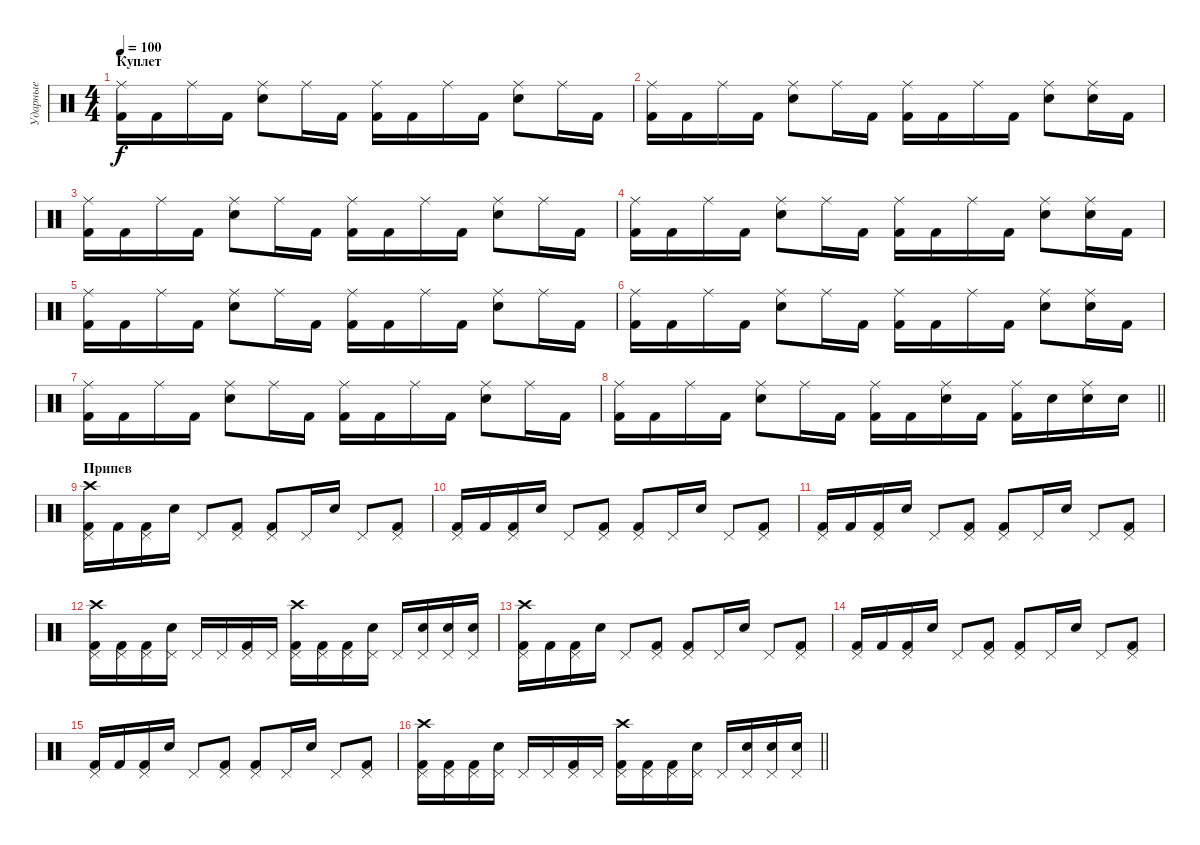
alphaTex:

\track ("Ударные" "Ударные") {instrument percussion}
\staff {score}
\articulation defaults
\ts (4 4)
\section ("" "Куплет")
\tempo 100
\clef neutral
\ks c
("Ride (middle)" "Kick (hit) 2").16{dy f} "Kick (hit) 2".16 "Ride (middle)".16 "Kick (hit) 2".16 ("Ride (middle)" "Snare (hit) 2").8 "Ride (middle)".16 "Kick (hit) 2".16 ("Ride (middle)" "Kick (hit) 2").16 "Kick (hit) 2".16 "Ride (middle)".16 "Kick (hit) 2".16 ("Ride (middle)" "Snare (hit) 2").8 "Ride (middle)".16 "Kick (hit) 2".16 |
("Ride (middle)" "Kick (hit) 2").16 "Kick (hit) 2".16 "Ride (middle)".16 "Kick (hit) 2".16 ("Ride (middle)" "Snare (hit) 2").8 "Ride (middle)".16 "Kick (hit) 2".16 ("Ride (middle)" "Kick (hit) 2").16 "Kick (hit) 2".16 "Ride (middle)".16 "Kick (hit) 2".16 ("Ride (middle)" "Snare (hit) 2").8 ("Ride (middle)" "Snare (hit) 2").16 "Kick (hit) 2".16 |
("Ride (middle)" "Kick (hit) 2").16 "Kick (hit) 2".16 "Ride (middle)".16 "Kick (hit) 2".16 ("Ride (middle)" "Snare (hit) 2").8 "Ride (middle)".16 "Kick (hit) 2".16 ("Ride (middle)" "Kick (hit) 2").16 "Kick (hit) 2".16 "Ride (middle)".16 "Kick (hit) 2".16 ("Ride (middle)" "Snare (hit) 2").8 "Ride (middle)".16 "Kick (hit) 2".16 |
("Ride (middle)" "Kick (hit) 2").16 "Kick (hit) 2".16 "Ride (middle)".16 "Kick (hit) 2".16 ("Ride (middle)" "Snare (hit) 2").8 "Ride (middle)".16 "Kick (hit) 2".16 ("Ride (middle)" "Kick (hit) 2").16 "Kick (hit) 2".16 "Ride (middle)".16 "Kick (hit) 2".16 ("Ride (middle)" "Snare (hit) 2").8 ("Ride (middle)" "Snare (hit) 2").16 "Kick (hit) 2".16 |
("Ride (middle)" "Kick (hit) 2").16 "Kick (hit) 2".16 "Ride (middle)".16 "Kick (hit) 2".16 ("Ride (middle)" "Snare (hit) 2").8 "Ride (middle)".16 "Kick (hit) 2".16 ("Ride (middle)" "Kick (hit) 2").16 "Kick (hit) 2".16 "Ride (middle)".16 "Kick (hit) 2".16 ("Ride (middle)" "Snare (hit) 2").8 "Ride (middle)".16 "Kick (hit) 2".16 |
("Ride (middle)" "Kick (hit) 2").16 "Kick (hit) 2".16 "Ride (middle)".16 "Kick (hit) 2".16 ("Ride (middle)" "Snare (hit) 2").8 "Ride (middle)".16 "Kick (hit) 2".16 ("Ride (middle)" "Kick (hit) 2").16 "Kick (hit) 2".16 "Ride (middle)".16 "Kick (hit) 2".16 ("Ride (middle)" "Snare (hit) 2").8 ("Ride (middle)" "Snare (hit) 2").16 "Kick (hit) 2".16 |
("Ride (middle)" "Kick (hit) 2").16 "Kick (hit) 2".16 "Ride (middle)".16 "Kick (hit) 2".16 ("Ride (middle)" "Snare (hit) 2").8 "Ride (middle)".16 "Kick (hit) 2".16 ("Ride (middle)" "Kick (hit) 2").16 "Kick (hit) 2".16 "Ride (middle)".16 "Kick (hit) 2".16 ("Ride (middle)" "Snare (hit) 2").8 "Ride (middle)".16 "Kick (hit) 2".16 |
\barLineRight lightlight
("Ride (middle)" "Kick (hit) 2").16 "Kick (hit) 2".16 "Ride (middle)".16 "Kick (hit) 2".16 ("Ride (middle)" "Snare (hit) 2").8 "Ride (middle)".16 "Kick (hit) 2".16 ("Ride (middle)" "Kick (hit) 2").16 "Kick (hit) 2".16 ("Ride (middle)" "Snare (hit) 2").16 "Kick (hit) 2".16 ("Ride (middle)" "Kick (hit) 2").16 "Snare (hit) 2".16 ("Ride (middle)" "Snare (hit) 2").16 "Snare (hit) 2".16 |
\section ("" "Припев")
("Pedal Hi-Hat (hit)" "Kick (hit) 2" "Crash high (hit)").16 "Kick (hit) 2".16 ("Pedal Hi-Hat (hit)" "Kick (hit) 2").16 "Snare (hit) 2".16 "Pedal Hi-Hat (hit)".8 ("Pedal Hi-Hat (hit)" "Kick (hit) 2").8 ("Pedal Hi-Hat (hit)" "Kick (hit) 2").8 "Pedal Hi-Hat (hit)".16 "Snare (hit) 2".16 "Pedal Hi-Hat (hit)".8 ("Pedal Hi-Hat (hit)" "Kick (hit) 2").8 |
("Pedal Hi-Hat (hit)" "Kick (hit) 2").16 "Kick (hit) 2".16 ("Pedal Hi-Hat (hit)" "Kick (hit) 2").16 "Snare (hit) 2".16 "Pedal Hi-Hat (hit)".8 ("Pedal Hi-Hat (hit)" "Kick (hit) 2").8 ("Pedal Hi-Hat (hit)" "Kick (hit) 2").8 "Pedal Hi-Hat (hit)".16 "Snare (hit) 2".16 "Pedal Hi-Hat (hit)".8 ("Pedal Hi-Hat (hit)" "Kick (hit) 2").8 |
("Pedal Hi-Hat (hit)" "Kick (hit) 2").16 "Kick (hit) 2".16 ("Pedal Hi-Hat (hit)" "Kick (hit) 2").16 "Snare (hit) 2".16 "Pedal Hi-Hat (hit)".8 ("Pedal Hi-Hat (hit)" "Kick (hit) 2").8 ("Pedal Hi-Hat (hit)" "Kick (hit) 2").8 "Pedal Hi-Hat (hit)".16 "Snare (hit) 2".16 "Pedal Hi-Hat (hit)".8 ("Pedal Hi-Hat (hit)" "Kick (hit) 2").8 |
("Pedal Hi-Hat (hit)" "Kick (hit) 2" "Crash high (hit)").16 ("Pedal Hi-Hat (hit)" "Kick (hit) 2").16 ("Pedal Hi-Hat (hit)" "Kick (hit) 2").16 ("Pedal Hi-Hat (hit)" "Snare (hit) 2").16 "Pedal Hi-Hat (hit)".16 "Pedal Hi-Hat (hit)".16 ("Pedal Hi-Hat (hit)" "Kick (hit) 2").16 "Pedal Hi-Hat (hit)".16 ("Pedal Hi-Hat (hit)" "Kick (hit) 2" "Crash high (hit)").16 ("Pedal Hi-Hat (hit)" "Kick (hit) 2").16 ("Pedal Hi-Hat (hit)" "Kick (hit) 2").16 ("Pedal Hi-Hat (hit)" "Snare (hit) 2").16 "Pedal Hi-Hat (hit)".16 ("Pedal Hi-Hat (hit)" "Snare (hit) 2").16 ("Pedal Hi-Hat (hit)" "Snare (hit) 2").16 ("Pedal Hi-Hat (hit)" "Snare (hit) 2").16 |
("Pedal Hi-Hat (hit)" "Kick (hit) 2" "Crash high (hit)").16 "Kick (hit) 2".16 ("Pedal Hi-Hat (hit)" "Kick (hit) 2").16 "Snare (hit) 2".16 "Pedal Hi-Hat (hit)".8 ("Pedal Hi-Hat (hit)" "Kick (hit) 2").8 ("Pedal Hi-Hat (hit)" "Kick (hit) 2").8 "Pedal Hi-Hat (hit)".16 "Snare (hit) 2".16 "Pedal Hi-Hat (hit)".8 ("Pedal Hi-Hat (hit)" "Kick (hit) 2").8 |
("Pedal Hi-Hat (hit)" "Kick (hit) 2").16 "Kick (hit) 2".16 ("Pedal Hi-Hat (hit)" "Kick (hit) 2").16 "Snare (hit) 2".16 "Pedal Hi-Hat (hit)".8 ("Pedal Hi-Hat (hit)" "Kick (hit) 2").8 ("Pedal Hi-Hat (hit)" "Kick (hit) 2").8 "Pedal Hi-Hat (hit)".16 "Snare (hit) 2".16 "Pedal Hi-Hat (hit)".8 ("Pedal Hi-Hat (hit)" "Kick (hit) 2").8 |
("Pedal Hi-Hat (hit)" "Kick (hit) 2").16 "Kick (hit) 2".16 ("Pedal Hi-Hat (hit)" "Kick (hit) 2").16 "Snare (hit) 2".16 "Pedal Hi-Hat (hit)".8 ("Pedal Hi-Hat (hit)" "Kick (hit) 2").8 ("Pedal Hi-Hat (hit)" "Kick (hit) 2").8 "Pedal Hi-Hat (hit)".16 "Snare (hit) 2".16 "Pedal Hi-Hat (hit)".8 ("Pedal Hi-Hat (hit)" "Kick (hit) 2").8 |
\barLineRight lightlight
("Pedal Hi-Hat (hit)" "Kick (hit) 2" "Crash high (hit)").16 ("Pedal Hi-Hat (hit)" "Kick (hit) 2").16 ("Pedal Hi-Hat (hit)" "Kick (hit) 2").16 ("Pedal Hi-Hat (hit)" "Snare (hit) 2").16 "Pedal Hi-Hat (hit)".16 "Pedal Hi-Hat (hit)".16 ("Pedal Hi-Hat (hit)" "Kick (hit) 2").16 "Pedal Hi-Hat (hit)".16 ("Pedal Hi-Hat (hit)" "Kick (hit) 2" "Crash high (hit)").16 ("Pedal Hi-Hat (hit)" "Kick (hit) 2").16 ("Pedal Hi-Hat (hit)" "Kick (hit) 2").16 ("Pedal Hi-Hat (hit)" "Snare (hit) 2").16 "Pedal Hi-Hat (hit)".16 ("Pedal Hi-Hat (hit)" "Snare (hit) 2").16 ("Pedal Hi-Hat (hit)" "Snare (hit) 2").16 ("Pedal Hi-Hat (hit)" "Snare (hit) 2").16
